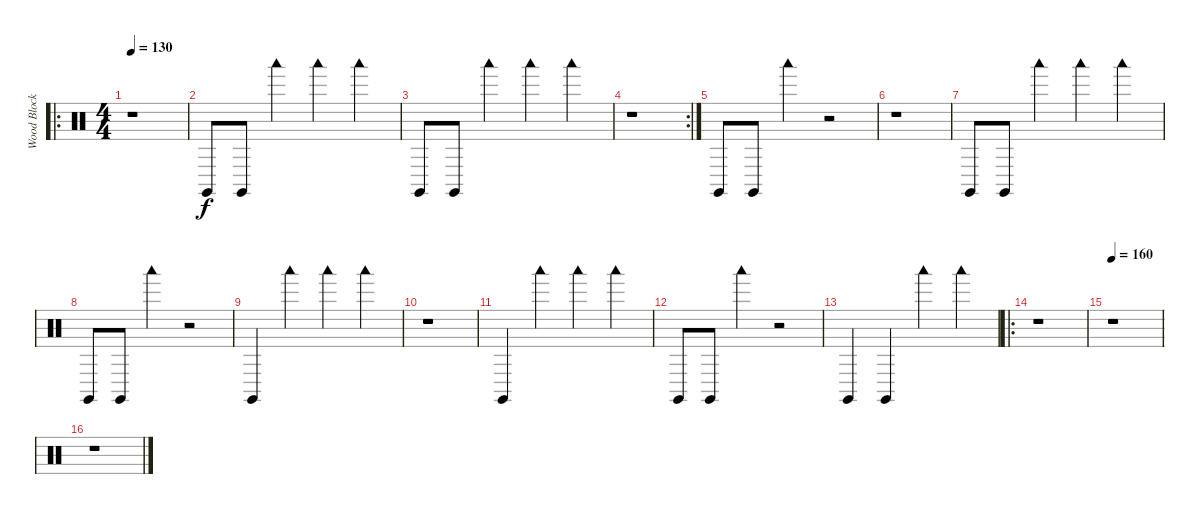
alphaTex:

\track ("Wood Blocks" "Wood Block") {instrument percussion}
\staff {score}
\articulation defaults
\ro
\ts (4 4)
\tempo 130
\clef neutral
\ks c
r.1{dy f} |
"Claves (hit)".8 "Claves (hit)".8 "Woodblock low (hit)".4 "Woodblock low (hit)".4 "Woodblock low (hit)".4 |
"Claves (hit)".8 "Claves (hit)".8 "Woodblock low (hit)".4 "Woodblock low (hit)".4 "Woodblock low (hit)".4 |
\rc 2
r.1 |
"Claves (hit)".8 "Claves (hit)".8 "Woodblock low (hit)".4 r.2 |
r.1 |
"Claves (hit)".8 "Claves (hit)".8 "Woodblock low (hit)".4 "Woodblock low (hit)".4 "Woodblock low (hit)".4 |
"Claves (hit)".8 "Claves (hit)".8 "Woodblock low (hit)".4 r.2 |
"Claves (hit)".4 "Woodblock low (hit)".4 "Woodblock low (hit)".4 "Woodblock low (hit)".4 |
r.1 |
"Claves (hit)".4 "Woodblock low (hit)".4 "Woodblock low (hit)".4 "Woodblock low (hit)".4 |
"Claves (hit)".8 "Claves (hit)".8 "Woodblock low (hit)".4 r.2 |
"Claves (hit)".4 "Claves (hit)".4 "Woodblock low (hit)".4 "Woodblock low (hit)".4 |
\ro
r.1 |
\tempo 160
r.1 |
r.1
